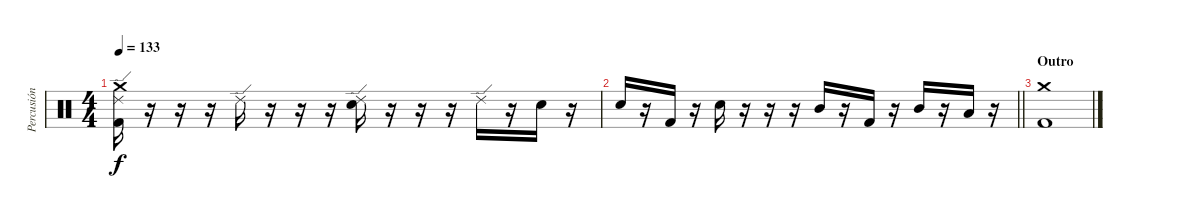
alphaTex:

\track ("Percusión" "Percusión") {instrument percussion}
\staff {score}
\articulation defaults
\ts (4 4)
\tempo 133
\clef neutral
\ks c
("Crash medium (hit)" "Ride (edge) 2" "Kick (hit) 2").16{dy f} r.16 r.16 r.16 "Ride (edge) 2".16 r.16 r.16 r.16 ("Ride (edge) 2" "Snare (hit) 2").16 r.16 r.16 r.16 "Ride (edge) 2".16 r.16 "Snare (hit) 2".16 r.16 |
\barLineRight lightlight "Snare (hit) 2".16
r.16 "Kick (hit) 2".16 r.16 "Snare (hit) 2".16 r.16 r.16 r.16 "Mid Tom (hit)".16 r.16 "Kick (hit) 2".16 r.16 "Mid Tom (hit)".16 r.16 "Low Tom (hit)".16 r.16 |
\section ("" "Outro")
("Crash medium (hit)" "Kick (hit) 2").1
